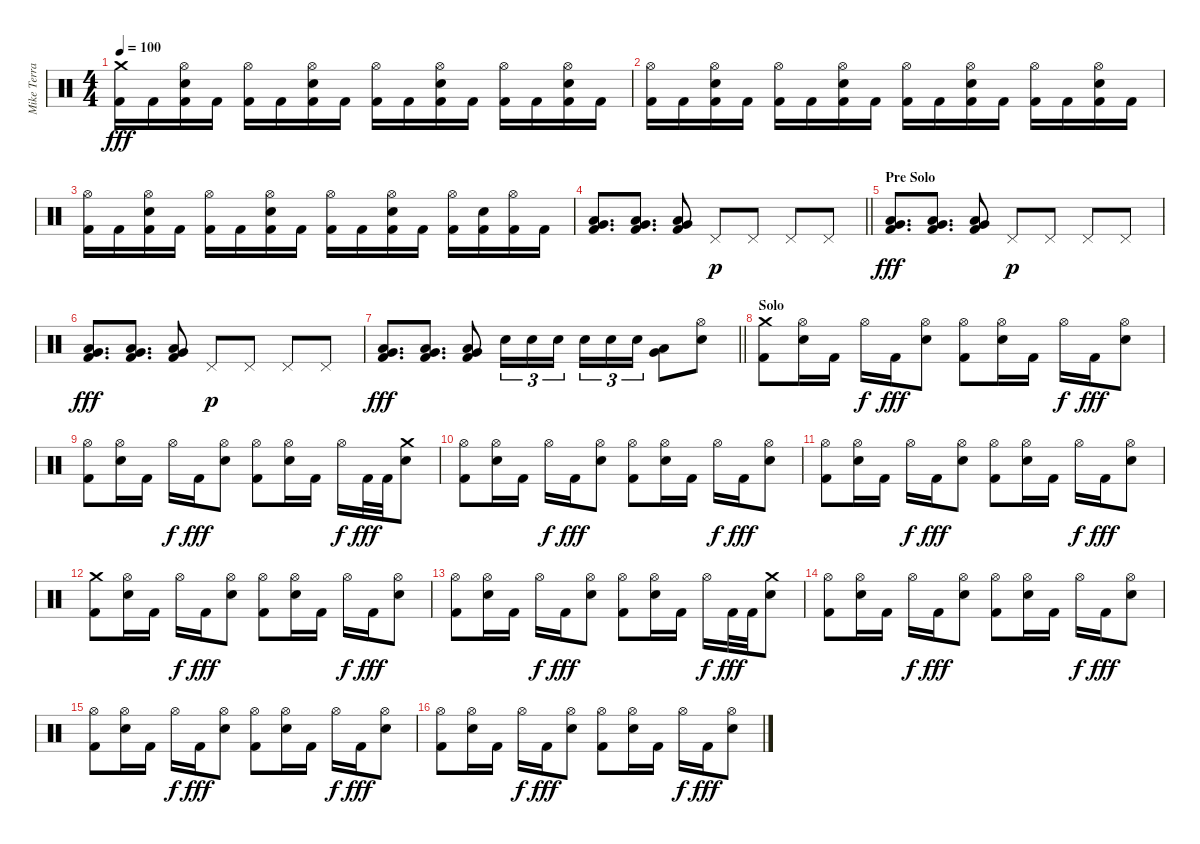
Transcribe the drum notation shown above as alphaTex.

\track ("Mike Terrana" "Mike Terra") {instrument percussion}
\staff {score}
\articulation defaults
\ts (4 4)
\tempo 100
\clef neutral
\ks c
("Crash medium (hit)" "Kick (hit) 2").16{dy fff} "Kick (hit) 2".16 ("Hi-Hat (open)" "Snare (hit) 2" "Kick (hit) 2").16 "Kick (hit) 2".16 ("Hi-Hat (open)" "Kick (hit) 2").16 "Kick (hit) 2".16 ("Hi-Hat (open)" "Snare (hit) 2" "Kick (hit) 2").16 "Kick (hit) 2".16 ("Hi-Hat (open)" "Kick (hit) 2").16 "Kick (hit) 2".16 ("Hi-Hat (open)" "Snare (hit) 2" "Kick (hit) 2").16 "Kick (hit) 2".16 ("Hi-Hat (open)" "Kick (hit) 2").16 "Kick (hit) 2".16 ("Hi-Hat (open)" "Snare (hit) 2" "Kick (hit) 2").16 "Kick (hit) 2".16 |
("Hi-Hat (open)" "Kick (hit) 2").16 "Kick (hit) 2".16 ("Hi-Hat (open)" "Snare (hit) 2" "Kick (hit) 2").16 "Kick (hit) 2".16 ("Hi-Hat (open)" "Kick (hit) 2").16 "Kick (hit) 2".16 ("Hi-Hat (open)" "Snare (hit) 2" "Kick (hit) 2").16 "Kick (hit) 2".16 ("Hi-Hat (open)" "Kick (hit) 2").16 "Kick (hit) 2".16 ("Hi-Hat (open)" "Snare (hit) 2" "Kick (hit) 2").16 "Kick (hit) 2".16 ("Hi-Hat (open)" "Kick (hit) 2").16 "Kick (hit) 2".16 ("Hi-Hat (open)" "Snare (hit) 2" "Kick (hit) 2").16 "Kick (hit) 2".16 |
("Hi-Hat (open)" "Kick (hit) 2").16 "Kick (hit) 2".16 ("Hi-Hat (open)" "Snare (hit) 2" "Kick (hit) 2").16 "Kick (hit) 2".16 ("Hi-Hat (open)" "Kick (hit) 2").16 "Kick (hit) 2".16 ("Hi-Hat (open)" "Snare (hit) 2" "Kick (hit) 2").16 "Kick (hit) 2".16 ("Hi-Hat (open)" "Kick (hit) 2").16 "Kick (hit) 2".16 ("Hi-Hat (open)" "Snare (hit) 2" "Kick (hit) 2").16 "Kick (hit) 2".16 ("Hi-Hat (open)" "Kick (hit) 2").16 ("Snare (hit) 2" "Kick (hit) 2").16 ("Hi-Hat (open)" "Kick (hit) 2").16 "Kick (hit) 2".16 |
\barLineRight lightlight
("Low Tom (hit)" "Very Low Tom (hit)" "Kick (hit) 2").8{d} ("Low Tom (hit)" "Very Low Tom (hit)" "Kick (hit) 2").8{d} ("Low Tom (hit)" "Very Low Tom (hit)" "Kick (hit) 2").8 "Pedal Hi-Hat (hit)".8{dy p} "Pedal Hi-Hat (hit)".8 "Pedal Hi-Hat (hit)".8 "Pedal Hi-Hat (hit)".8 |
\section ("" "Pre Solo")
("Low Tom (hit)" "Very Low Tom (hit)" "Kick (hit) 2").8{d dy fff} ("Low Tom (hit)" "Very Low Tom (hit)" "Kick (hit) 2").8{d} ("Low Tom (hit)" "Very Low Tom (hit)" "Kick (hit) 2").8 "Pedal Hi-Hat (hit)".8{dy p} "Pedal Hi-Hat (hit)".8 "Pedal Hi-Hat (hit)".8 "Pedal Hi-Hat (hit)".8 |
("Low Tom (hit)" "Very Low Tom (hit)" "Kick (hit) 2").8{d dy fff} ("Low Tom (hit)" "Very Low Tom (hit)" "Kick (hit) 2").8{d} ("Low Tom (hit)" "Very Low Tom (hit)" "Kick (hit) 2").8 "Pedal Hi-Hat (hit)".8{dy p} "Pedal Hi-Hat (hit)".8 "Pedal Hi-Hat (hit)".8 "Pedal Hi-Hat (hit)".8 |
\barLineRight lightlight
("Low Tom (hit)" "Very Low Tom (hit)" "Kick (hit) 2").8{d dy fff} ("Low Tom (hit)" "Very Low Tom (hit)" "Kick (hit) 2").8{d} ("Low Tom (hit)" "Very Low Tom (hit)" "Kick (hit) 2").8 "Snare (hit) 2".16{tu (3 2)} "Snare (hit) 2".16{tu (3 2)} "Snare (hit) 2".16{tu (3 2) beam splitsecondary} "Snare (hit) 2".16{tu (3 2)} "Snare (hit) 2".16{tu (3 2)} "Snare (hit) 2".16{tu (3 2)} ("Low Tom (hit)" "Very Low Tom (hit)").8 ("Hi-Hat (open)" "Snare (hit) 2").8 |
\section ("" "Solo")
("Crash medium (hit)" "Kick (hit) 2").8 ("Hi-Hat (open)" "Snare (hit) 2").16 "Kick (hit) 2".16 "Hi-Hat (open)".16{dy f} "Kick (hit) 2".16{dy fff} ("Hi-Hat (open)" "Snare (hit) 2").8 ("Hi-Hat (open)" "Kick (hit) 2").8 ("Hi-Hat (open)" "Snare (hit) 2").16 "Kick (hit) 2".16 "Hi-Hat (open)".16{dy f} "Kick (hit) 2".16{dy fff} ("Hi-Hat (open)" "Snare (hit) 2").8 |
("Hi-Hat (open)" "Kick (hit) 2").8 ("Hi-Hat (open)" "Snare (hit) 2").16 "Kick (hit) 2".16 "Hi-Hat (open)".16{dy f} "Kick (hit) 2".16{dy fff} ("Hi-Hat (open)" "Snare (hit) 2").8 ("Hi-Hat (open)" "Kick (hit) 2").8 ("Hi-Hat (open)" "Snare (hit) 2").16 "Kick (hit) 2".16 "Hi-Hat (open)".16{dy f} "Kick (hit) 2".32{dy fff} "Kick (hit) 2".32 ("Crash medium (hit)" "Snare (hit) 2").8 |
("Hi-Hat (open)" "Kick (hit) 2").8 ("Hi-Hat (open)" "Snare (hit) 2").16 "Kick (hit) 2".16 "Hi-Hat (open)".16{dy f} "Kick (hit) 2".16{dy fff} ("Hi-Hat (open)" "Snare (hit) 2").8 ("Hi-Hat (open)" "Kick (hit) 2").8 ("Hi-Hat (open)" "Snare (hit) 2").16 "Kick (hit) 2".16 "Hi-Hat (open)".16{dy f} "Kick (hit) 2".16{dy fff} ("Hi-Hat (open)" "Snare (hit) 2").8 |
("Hi-Hat (open)" "Kick (hit) 2").8 ("Hi-Hat (open)" "Snare (hit) 2").16 "Kick (hit) 2".16 "Hi-Hat (open)".16{dy f} "Kick (hit) 2".16{dy fff} ("Hi-Hat (open)" "Snare (hit) 2").8 ("Hi-Hat (open)" "Kick (hit) 2").8 ("Hi-Hat (open)" "Snare (hit) 2").16 "Kick (hit) 2".16 "Hi-Hat (open)".16{dy f} "Kick (hit) 2".16{dy fff} ("Hi-Hat (open)" "Snare (hit) 2").8 |
("Crash medium (hit)" "Kick (hit) 2").8 ("Hi-Hat (open)" "Snare (hit) 2").16 "Kick (hit) 2".16 "Hi-Hat (open)".16{dy f} "Kick (hit) 2".16{dy fff} ("Hi-Hat (open)" "Snare (hit) 2").8 ("Hi-Hat (open)" "Kick (hit) 2").8 ("Hi-Hat (open)" "Snare (hit) 2").16 "Kick (hit) 2".16 "Hi-Hat (open)".16{dy f} "Kick (hit) 2".16{dy fff} ("Hi-Hat (open)" "Snare (hit) 2").8 |
("Hi-Hat (open)" "Kick (hit) 2").8 ("Hi-Hat (open)" "Snare (hit) 2").16 "Kick (hit) 2".16 "Hi-Hat (open)".16{dy f} "Kick (hit) 2".16{dy fff} ("Hi-Hat (open)" "Snare (hit) 2").8 ("Hi-Hat (open)" "Kick (hit) 2").8 ("Hi-Hat (open)" "Snare (hit) 2").16 "Kick (hit) 2".16 "Hi-Hat (open)".16{dy f} "Kick (hit) 2".32{dy fff} "Kick (hit) 2".32 ("Crash medium (hit)" "Snare (hit) 2").8 |
("Hi-Hat (open)" "Kick (hit) 2").8 ("Hi-Hat (open)" "Snare (hit) 2").16 "Kick (hit) 2".16 "Hi-Hat (open)".16{dy f} "Kick (hit) 2".16{dy fff} ("Hi-Hat (open)" "Snare (hit) 2").8 ("Hi-Hat (open)" "Kick (hit) 2").8 ("Hi-Hat (open)" "Snare (hit) 2").16 "Kick (hit) 2".16 "Hi-Hat (open)".16{dy f} "Kick (hit) 2".16{dy fff} ("Hi-Hat (open)" "Snare (hit) 2").8 |
("Hi-Hat (open)" "Kick (hit) 2").8 ("Hi-Hat (open)" "Snare (hit) 2").16 "Kick (hit) 2".16 "Hi-Hat (open)".16{dy f} "Kick (hit) 2".16{dy fff} ("Hi-Hat (open)" "Snare (hit) 2").8 ("Hi-Hat (open)" "Kick (hit) 2").8 ("Hi-Hat (open)" "Snare (hit) 2").16 "Kick (hit) 2".16 "Hi-Hat (open)".16{dy f} "Kick (hit) 2".16{dy fff} ("Hi-Hat (open)" "Snare (hit) 2").8 |
("Hi-Hat (open)" "Kick (hit) 2").8 ("Hi-Hat (open)" "Snare (hit) 2").16 "Kick (hit) 2".16 "Hi-Hat (open)".16{dy f} "Kick (hit) 2".16{dy fff} ("Hi-Hat (open)" "Snare (hit) 2").8 ("Hi-Hat (open)" "Kick (hit) 2").8 ("Hi-Hat (open)" "Snare (hit) 2").16 "Kick (hit) 2".16 "Hi-Hat (open)".16{dy f} "Kick (hit) 2".16{dy fff} ("Hi-Hat (open)" "Snare (hit) 2").8
